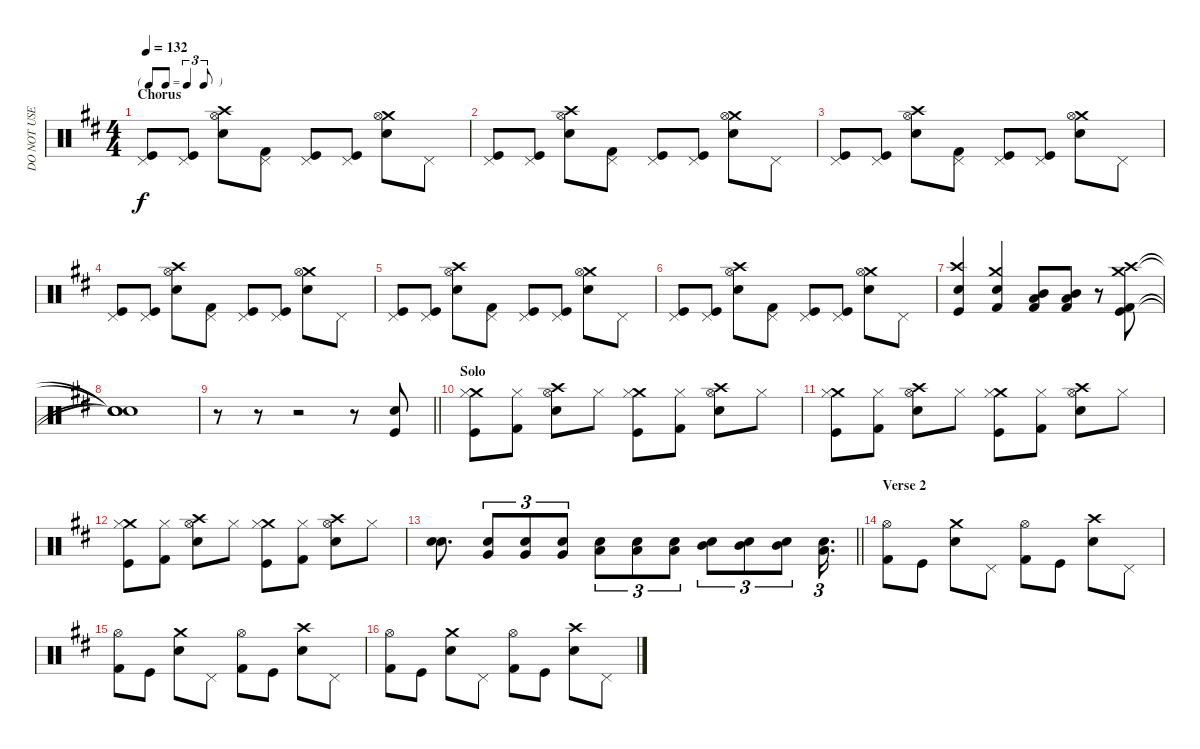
\track ("DO NOT USE" "DO NOT USE") {solo instrument percussion}
\staff {score}
\articulation defaults
\ts (4 4)
\tf triplet8th
\section ("" "Chorus")
\tempo 132
\clef neutral
\ks d
("Kick (hit)" "Pedal Hi-Hat (hit)").8{dy f} ("Kick (hit)" "Pedal Hi-Hat (hit)").8 ("Crash high (hit)" "Snare (hit) 2" "Hi-Hat (open)").8 ("Kick (hit) 2" "Pedal Hi-Hat (hit)").8 ("Kick (hit)" "Pedal Hi-Hat (hit)").8 ("Kick (hit)" "Pedal Hi-Hat (hit)").8 ("Crash medium (hit)" "Electric Snare (hit)" "Hi-Hat (open)").8 "Pedal Hi-Hat (hit)".8 |
("Kick (hit)" "Pedal Hi-Hat (hit)").8 ("Kick (hit)" "Pedal Hi-Hat (hit)").8 ("Crash high (hit)" "Snare (hit) 2" "Hi-Hat (open)").8 ("Kick (hit) 2" "Pedal Hi-Hat (hit)").8 ("Kick (hit)" "Pedal Hi-Hat (hit)").8 ("Kick (hit)" "Pedal Hi-Hat (hit)").8 ("Crash medium (hit)" "Electric Snare (hit)" "Hi-Hat (open)").8 "Pedal Hi-Hat (hit)".8 |
("Kick (hit)" "Pedal Hi-Hat (hit)").8 ("Kick (hit)" "Pedal Hi-Hat (hit)").8 ("Crash high (hit)" "Snare (hit) 2" "Hi-Hat (open)").8 ("Kick (hit) 2" "Pedal Hi-Hat (hit)").8 ("Kick (hit)" "Pedal Hi-Hat (hit)").8 ("Kick (hit)" "Pedal Hi-Hat (hit)").8 ("Crash medium (hit)" "Electric Snare (hit)" "Hi-Hat (open)").8 "Pedal Hi-Hat (hit)".8 |
("Kick (hit)" "Pedal Hi-Hat (hit)").8 ("Kick (hit)" "Pedal Hi-Hat (hit)").8 ("Crash high (hit)" "Snare (hit) 2" "Hi-Hat (open)").8 ("Kick (hit) 2" "Pedal Hi-Hat (hit)").8 ("Kick (hit)" "Pedal Hi-Hat (hit)").8 ("Kick (hit)" "Pedal Hi-Hat (hit)").8 ("Crash medium (hit)" "Electric Snare (hit)" "Hi-Hat (open)").8 "Pedal Hi-Hat (hit)".8 |
("Kick (hit)" "Pedal Hi-Hat (hit)").8 ("Kick (hit)" "Pedal Hi-Hat (hit)").8 ("Crash high (hit)" "Snare (hit) 2" "Hi-Hat (open)").8 ("Kick (hit) 2" "Pedal Hi-Hat (hit)").8 ("Kick (hit)" "Pedal Hi-Hat (hit)").8 ("Kick (hit)" "Pedal Hi-Hat (hit)").8 ("Crash medium (hit)" "Electric Snare (hit)" "Hi-Hat (open)").8 "Pedal Hi-Hat (hit)".8 |
("Kick (hit)" "Pedal Hi-Hat (hit)").8 ("Kick (hit)" "Pedal Hi-Hat (hit)").8 ("Crash high (hit)" "Snare (hit) 2" "Hi-Hat (open)").8 ("Kick (hit) 2" "Pedal Hi-Hat (hit)").8 ("Kick (hit)" "Pedal Hi-Hat (hit)").8 ("Kick (hit)" "Pedal Hi-Hat (hit)").8 ("Crash medium (hit)" "Electric Snare (hit)" "Hi-Hat (open)").8 "Pedal Hi-Hat (hit)".8 |
("Crash high (hit)" "Snare (hit) 2" "Kick (hit)").4 ("Crash medium (hit)" "Electric Snare (hit)" "Kick (hit) 2").4 ("Kick (hit) 2" "Mid Tom (hit)" "Low Tom (hit)").8 ("Kick (hit) 2" "Mid Tom (hit)" "Low Tom (hit)").8 r.8 ("Kick (hit)" "Crash high (hit)" "Crash medium (hit)" "Kick (hit) 2").8 |
("Snare (hit)"{t} "Snare (hit)"{t} "Snare (hit)"{t} "Snare (hit)"{t}).1 |
\barLineRight lightlight
r.8 r.8 r.2 r.8 ("Electric Snare (hit)" "Kick (hit)").8 |
\section ("" "Solo")
("Crash medium (hit)" "Kick (hit)" "Hi-Hat (closed)").8 ("Kick (hit) 2" "Hi-Hat (closed)").8 ("Crash high (hit)" "Electric Snare (hit)" "Hi-Hat (open)").8 "Hi-Hat (closed)".8 ("Crash medium (hit)" "Kick (hit)" "Hi-Hat (closed)").8 ("Kick (hit) 2" "Hi-Hat (closed)").8 ("Crash high (hit)" "Snare (hit) 2" "Hi-Hat (open)").8 "Hi-Hat (closed)".8 |
("Crash medium (hit)" "Kick (hit)" "Hi-Hat (closed)").8 ("Kick (hit) 2" "Hi-Hat (closed)").8 ("Crash high (hit)" "Electric Snare (hit)" "Hi-Hat (open)").8 "Hi-Hat (closed)".8 ("Crash medium (hit)" "Kick (hit)" "Hi-Hat (closed)").8 ("Kick (hit) 2" "Hi-Hat (closed)").8 ("Crash high (hit)" "Snare (hit) 2" "Hi-Hat (open)").8 "Hi-Hat (closed)".8 |
("Crash medium (hit)" "Kick (hit)" "Hi-Hat (closed)").8 ("Kick (hit) 2" "Hi-Hat (closed)").8 ("Crash high (hit)" "Electric Snare (hit)" "Hi-Hat (open)").8 "Hi-Hat (closed)".8 ("Crash medium (hit)" "Kick (hit)" "Hi-Hat (closed)").8 ("Kick (hit) 2" "Hi-Hat (closed)").8 ("Crash high (hit)" "Electric Snare (hit)" "Hi-Hat (open)").8 "Hi-Hat (closed)".8 |
\barLineRight lightlight
("Snare (hit) 2" "Electric Snare (hit)").8{d} ("Electric Snare (hit)" "Very Low Tom (hit)").8{tu (3 2)} ("Electric Snare (hit)" "Very Low Tom (hit)").8{tu (3 2)} ("Electric Snare (hit)" "Very Low Tom (hit)").8{tu (3 2)} ("Snare (hit) 2" "Low Tom (hit)").8{tu (3 2)} ("Snare (hit) 2" "Low Tom (hit)").8{tu (3 2)} ("Snare (hit) 2" "Low Tom (hit)").8{tu (3 2)} ("Electric Snare (hit)" "Mid Tom (hit)").8{tu (3 2)} ("Electric Snare (hit)" "Mid Tom (hit)").8{tu (3 2)} ("Electric Snare (hit)" "Mid Tom (hit)").8{tu (3 2)} ("Electric Snare (hit)" "Low Floor Tom (hit)").16{d tu (3 2)} |
\section ("" "Verse 2")
("Hi-Hat (open)" "Kick (hit) 2").8 "Kick (hit)".8 ("Crash medium (hit)" "Electric Snare (hit)").8 "Pedal Hi-Hat (hit)".8 ("Hi-Hat (open)" "Kick (hit) 2").8 "Kick (hit)".8 ("Crash high (hit)" "Electric Snare (hit)").8 "Pedal Hi-Hat (hit)".8 |
("Hi-Hat (open)" "Kick (hit) 2").8 "Kick (hit)".8 ("Crash medium (hit)" "Electric Snare (hit)").8 "Pedal Hi-Hat (hit)".8 ("Hi-Hat (open)" "Kick (hit) 2").8 "Kick (hit)".8 ("Crash high (hit)" "Electric Snare (hit)").8 "Pedal Hi-Hat (hit)".8 |
("Hi-Hat (open)" "Kick (hit) 2").8 "Kick (hit)".8 ("Crash medium (hit)" "Electric Snare (hit)").8 "Pedal Hi-Hat (hit)".8 ("Hi-Hat (open)" "Kick (hit) 2").8 "Kick (hit)".8 ("Crash high (hit)" "Electric Snare (hit)").8 "Pedal Hi-Hat (hit)".8
